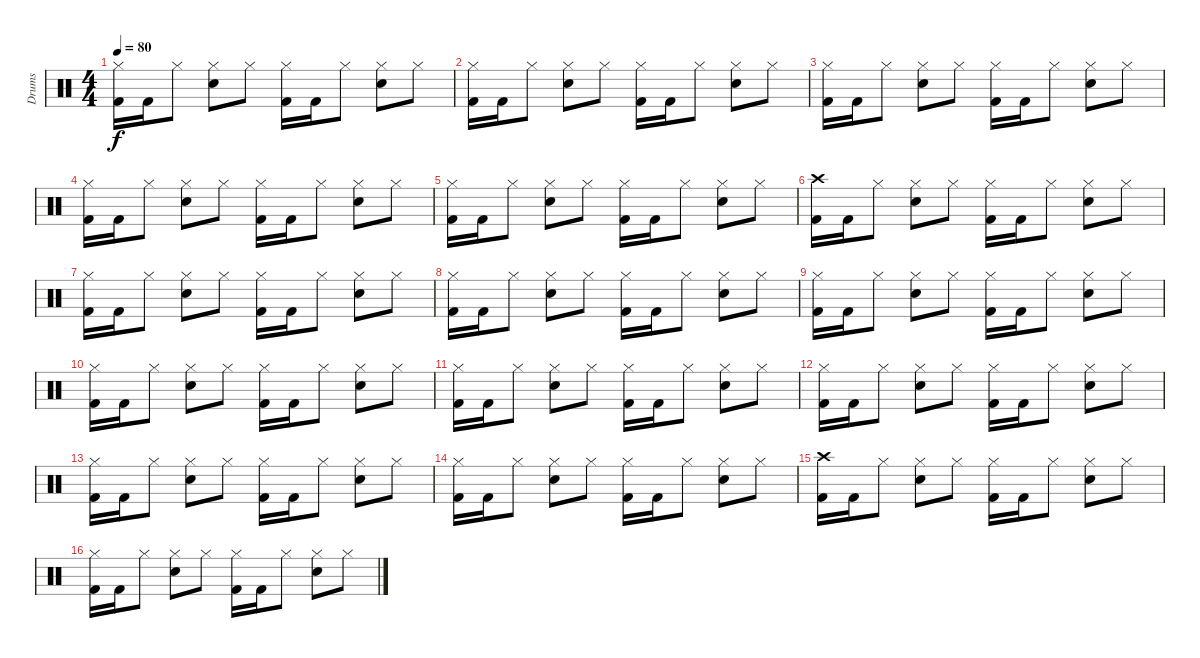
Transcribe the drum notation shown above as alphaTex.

\track ("Drums         " "Drums     ") {instrument percussion}
\staff {score}
\articulation defaults
\ts (4 4)
\tempo 80
\clef neutral
\ks c
("Kick (hit) 2" "Hi-Hat (closed)").16{dy f} "Kick (hit) 2".16 "Hi-Hat (closed)".8 ("Snare (hit) 2" "Hi-Hat (closed)").8 "Hi-Hat (closed)".8 ("Kick (hit) 2" "Hi-Hat (closed)").16 "Kick (hit) 2".16 "Hi-Hat (closed)".8 ("Snare (hit) 2" "Hi-Hat (closed)").8 "Hi-Hat (closed)".8 |
("Kick (hit) 2" "Hi-Hat (closed)").16 "Kick (hit) 2".16 "Hi-Hat (closed)".8 ("Snare (hit) 2" "Hi-Hat (closed)").8 "Hi-Hat (closed)".8 ("Kick (hit) 2" "Hi-Hat (closed)").16 "Kick (hit) 2".16 "Hi-Hat (closed)".8 ("Snare (hit) 2" "Hi-Hat (closed)").8 "Hi-Hat (closed)".8 |
("Kick (hit) 2" "Hi-Hat (closed)").16 "Kick (hit) 2".16 "Hi-Hat (closed)".8 ("Snare (hit) 2" "Hi-Hat (closed)").8 "Hi-Hat (closed)".8 ("Kick (hit) 2" "Hi-Hat (closed)").16 "Kick (hit) 2".16 "Hi-Hat (closed)".8 ("Snare (hit) 2" "Hi-Hat (closed)").8 "Hi-Hat (closed)".8 |
("Kick (hit) 2" "Hi-Hat (closed)").16 "Kick (hit) 2".16 "Hi-Hat (closed)".8 ("Snare (hit) 2" "Hi-Hat (closed)").8 "Hi-Hat (closed)".8 ("Kick (hit) 2" "Hi-Hat (closed)").16 "Kick (hit) 2".16 "Hi-Hat (closed)".8 ("Snare (hit) 2" "Hi-Hat (closed)").8 "Hi-Hat (closed)".8 |
("Kick (hit) 2" "Hi-Hat (closed)").16 "Kick (hit) 2".16 "Hi-Hat (closed)".8 ("Snare (hit) 2" "Hi-Hat (closed)").8 "Hi-Hat (closed)".8 ("Kick (hit) 2" "Hi-Hat (closed)").16 "Kick (hit) 2".16 "Hi-Hat (closed)".8 ("Snare (hit) 2" "Hi-Hat (closed)").8 "Hi-Hat (closed)".8 |
("Kick (hit) 2" "Crash high (hit)").16 "Kick (hit) 2".16 "Hi-Hat (closed)".8 ("Snare (hit) 2" "Hi-Hat (closed)").8 "Hi-Hat (closed)".8 ("Kick (hit) 2" "Hi-Hat (closed)").16 "Kick (hit) 2".16 "Hi-Hat (closed)".8 ("Snare (hit) 2" "Hi-Hat (closed)").8 "Hi-Hat (closed)".8 |
("Kick (hit) 2" "Hi-Hat (closed)").16 "Kick (hit) 2".16 "Hi-Hat (closed)".8 ("Snare (hit) 2" "Hi-Hat (closed)").8 "Hi-Hat (closed)".8 ("Kick (hit) 2" "Hi-Hat (closed)").16 "Kick (hit) 2".16 "Hi-Hat (closed)".8 ("Snare (hit) 2" "Hi-Hat (closed)").8 "Hi-Hat (closed)".8 |
("Kick (hit) 2" "Hi-Hat (closed)").16 "Kick (hit) 2".16 "Hi-Hat (closed)".8 ("Snare (hit) 2" "Hi-Hat (closed)").8 "Hi-Hat (closed)".8 ("Kick (hit) 2" "Hi-Hat (closed)").16 "Kick (hit) 2".16 "Hi-Hat (closed)".8 ("Snare (hit) 2" "Hi-Hat (closed)").8 "Hi-Hat (closed)".8 |
("Kick (hit) 2" "Hi-Hat (closed)").16 "Kick (hit) 2".16 "Hi-Hat (closed)".8 ("Snare (hit) 2" "Hi-Hat (closed)").8 "Hi-Hat (closed)".8 ("Kick (hit) 2" "Hi-Hat (closed)").16 "Kick (hit) 2".16 "Hi-Hat (closed)".8 ("Snare (hit) 2" "Hi-Hat (closed)").8 "Hi-Hat (closed)".8 |
("Kick (hit) 2" "Hi-Hat (closed)").16 "Kick (hit) 2".16 "Hi-Hat (closed)".8 ("Snare (hit) 2" "Hi-Hat (closed)").8 "Hi-Hat (closed)".8 ("Kick (hit) 2" "Hi-Hat (closed)").16 "Kick (hit) 2".16 "Hi-Hat (closed)".8 ("Snare (hit) 2" "Hi-Hat (closed)").8 "Hi-Hat (closed)".8 |
("Kick (hit) 2" "Hi-Hat (closed)").16 "Kick (hit) 2".16 "Hi-Hat (closed)".8 ("Snare (hit) 2" "Hi-Hat (closed)").8 "Hi-Hat (closed)".8 ("Kick (hit) 2" "Hi-Hat (closed)").16 "Kick (hit) 2".16 "Hi-Hat (closed)".8 ("Snare (hit) 2" "Hi-Hat (closed)").8 "Hi-Hat (closed)".8 |
("Kick (hit) 2" "Hi-Hat (closed)").16 "Kick (hit) 2".16 "Hi-Hat (closed)".8 ("Snare (hit) 2" "Hi-Hat (closed)").8 "Hi-Hat (closed)".8 ("Kick (hit) 2" "Hi-Hat (closed)").16 "Kick (hit) 2".16 "Hi-Hat (closed)".8 ("Snare (hit) 2" "Hi-Hat (closed)").8 "Hi-Hat (closed)".8 |
("Kick (hit) 2" "Hi-Hat (closed)").16 "Kick (hit) 2".16 "Hi-Hat (closed)".8 ("Snare (hit) 2" "Hi-Hat (closed)").8 "Hi-Hat (closed)".8 ("Kick (hit) 2" "Hi-Hat (closed)").16 "Kick (hit) 2".16 "Hi-Hat (closed)".8 ("Snare (hit) 2" "Hi-Hat (closed)").8 "Hi-Hat (closed)".8 |
("Kick (hit) 2" "Hi-Hat (closed)").16 "Kick (hit) 2".16 "Hi-Hat (closed)".8 ("Snare (hit) 2" "Hi-Hat (closed)").8 "Hi-Hat (closed)".8 ("Kick (hit) 2" "Hi-Hat (closed)").16 "Kick (hit) 2".16 "Hi-Hat (closed)".8 ("Snare (hit) 2" "Hi-Hat (closed)").8 "Hi-Hat (closed)".8 |
("Kick (hit) 2" "Crash high (hit)").16 "Kick (hit) 2".16 "Hi-Hat (closed)".8 ("Snare (hit) 2" "Hi-Hat (closed)").8 "Hi-Hat (closed)".8 ("Kick (hit) 2" "Hi-Hat (closed)").16 "Kick (hit) 2".16 "Hi-Hat (closed)".8 ("Snare (hit) 2" "Hi-Hat (closed)").8 "Hi-Hat (closed)".8 |
("Kick (hit) 2" "Hi-Hat (closed)").16 "Kick (hit) 2".16 "Hi-Hat (closed)".8 ("Snare (hit) 2" "Hi-Hat (closed)").8 "Hi-Hat (closed)".8 ("Kick (hit) 2" "Hi-Hat (closed)").16 "Kick (hit) 2".16 "Hi-Hat (closed)".8 ("Snare (hit) 2" "Hi-Hat (closed)").8 "Hi-Hat (closed)".8
